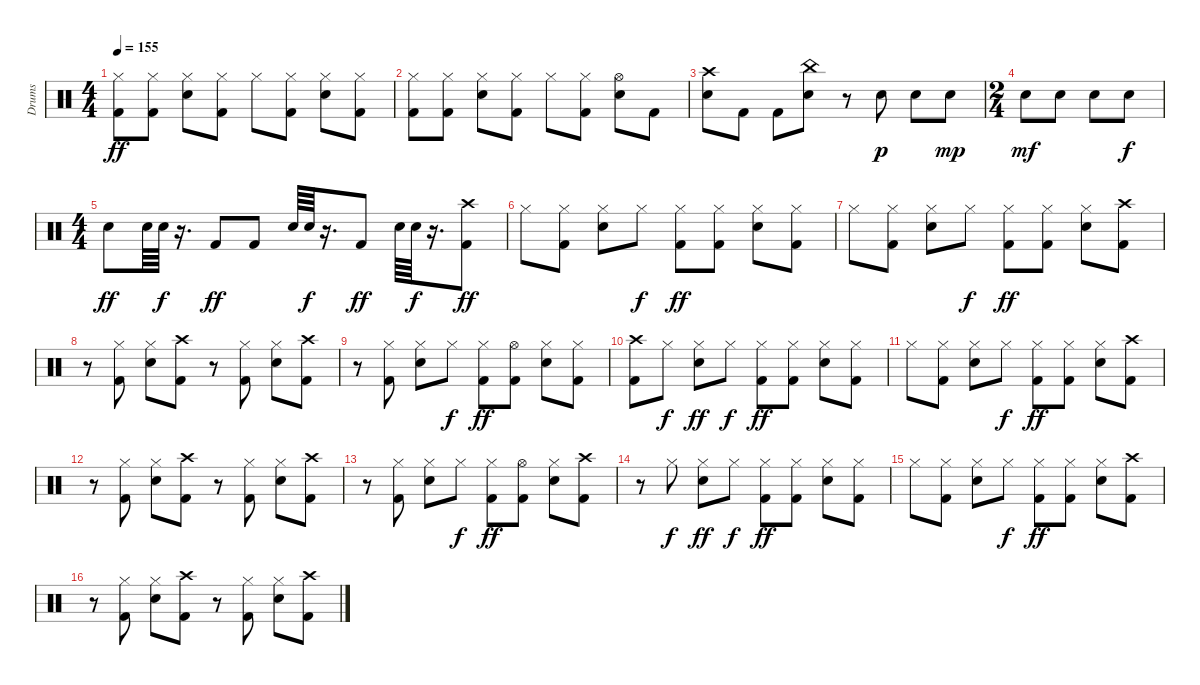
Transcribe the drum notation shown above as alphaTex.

\track ("Drums" "Drums") {instrument percussion}
\staff {score}
\articulation defaults
\ts (4 4)
\tempo 155
\clef neutral
\ks c
("Hi-Hat (closed)" "Kick (hit) 2").8{dy ff} ("Hi-Hat (closed)" "Kick (hit) 2").8 ("Hi-Hat (closed)" "Snare (hit) 2").8 ("Hi-Hat (closed)" "Kick (hit) 2").8 "Hi-Hat (closed)".8 ("Hi-Hat (closed)" "Kick (hit) 2").8 ("Hi-Hat (closed)" "Snare (hit) 2").8 ("Hi-Hat (closed)" "Kick (hit) 2").8 |
("Hi-Hat (closed)" "Kick (hit) 2").8 ("Hi-Hat (closed)" "Kick (hit) 2").8 ("Hi-Hat (closed)" "Snare (hit) 2").8 ("Hi-Hat (closed)" "Kick (hit) 2").8 "Hi-Hat (closed)".8 ("Hi-Hat (closed)" "Kick (hit) 2").8 ("Hi-Hat (open)" "Snare (hit) 2").8 "Kick (hit) 2".8 |
("Crash high (hit)" "Snare (hit) 2").8 "Kick (hit) 2".8 "Kick (hit) 2".8 ("China (hit)" "Snare (hit) 2").8 r.8 "Snare (hit) 2".8{dy p} "Snare (hit) 2".8 "Snare (hit) 2".8{dy mp} |
\ts (2 4)
"Snare (hit) 2".8{dy mf} "Snare (hit) 2".8 "Snare (hit) 2".8 "Snare (hit) 2".8{dy f} |
\ts (4 4)
"Snare (hit) 2".8{dy ff} "Snare (hit) 2".64 "Snare (hit) 2".64{dy f} r.16{d} "Kick (hit) 2".8{dy ff} "Kick (hit) 2".8 "Snare (hit) 2".64 "Snare (hit) 2".64{dy f} r.16{d} "Kick (hit) 2".8{dy ff} "Snare (hit) 2".64 "Snare (hit) 2".64{dy f} r.16{d} ("Crash high (hit)" "Kick (hit) 2").8{dy ff} |
"Hi-Hat (closed)".8 ("Hi-Hat (closed)" "Kick (hit) 2").8 ("Hi-Hat (closed)" "Snare (hit) 2").8 "Hi-Hat (closed)".8{dy f} ("Hi-Hat (closed)" "Kick (hit) 2").8{dy ff} ("Hi-Hat (closed)" "Kick (hit) 2").8 ("Hi-Hat (closed)" "Snare (hit) 2").8 ("Hi-Hat (closed)" "Kick (hit) 2").8 |
"Hi-Hat (closed)".8 ("Hi-Hat (closed)" "Kick (hit) 2").8 ("Hi-Hat (closed)" "Snare (hit) 2").8 "Hi-Hat (closed)".8{dy f} ("Hi-Hat (closed)" "Kick (hit) 2").8{dy ff} ("Hi-Hat (closed)" "Kick (hit) 2").8 ("Hi-Hat (closed)" "Snare (hit) 2").8 ("Crash high (hit)" "Kick (hit) 2").8 |
r.8 ("Hi-Hat (closed)" "Kick (hit) 2").8 ("Hi-Hat (closed)" "Snare (hit) 2").8 ("Crash high (hit)" "Kick (hit) 2").8 r.8 ("Hi-Hat (closed)" "Kick (hit) 2").8 ("Hi-Hat (closed)" "Snare (hit) 2").8 ("Crash high (hit)" "Kick (hit) 2").8 |
r.8 ("Hi-Hat (closed)" "Kick (hit) 2").8 ("Hi-Hat (closed)" "Snare (hit) 2").8 "Hi-Hat (closed)".8{dy f} ("Hi-Hat (closed)" "Kick (hit) 2").8{dy ff} ("Hi-Hat (open)" "Kick (hit) 2").8 ("Hi-Hat (closed)" "Snare (hit) 2").8 ("Hi-Hat (closed)" "Kick (hit) 2").8 |
("Crash high (hit)" "Kick (hit) 2").8 "Hi-Hat (closed)".8{dy f} ("Hi-Hat (closed)" "Snare (hit) 2").8{dy ff} "Hi-Hat (closed)".8{dy f} ("Hi-Hat (closed)" "Kick (hit) 2").8{dy ff} ("Hi-Hat (closed)" "Kick (hit) 2").8 ("Hi-Hat (closed)" "Snare (hit) 2").8 ("Hi-Hat (closed)" "Kick (hit) 2").8 |
"Hi-Hat (closed)".8 ("Hi-Hat (closed)" "Kick (hit) 2").8 ("Hi-Hat (closed)" "Snare (hit) 2").8 "Hi-Hat (closed)".8{dy f} ("Hi-Hat (closed)" "Kick (hit) 2").8{dy ff} ("Hi-Hat (closed)" "Kick (hit) 2").8 ("Hi-Hat (closed)" "Snare (hit) 2").8 ("Crash high (hit)" "Kick (hit) 2").8 |
r.8 ("Hi-Hat (closed)" "Kick (hit) 2").8 ("Hi-Hat (closed)" "Snare (hit) 2").8 ("Crash high (hit)" "Kick (hit) 2").8 r.8 ("Hi-Hat (closed)" "Kick (hit) 2").8 ("Hi-Hat (closed)" "Snare (hit) 2").8 ("Crash high (hit)" "Kick (hit) 2").8 |
r.8 ("Hi-Hat (closed)" "Kick (hit) 2").8 ("Hi-Hat (closed)" "Snare (hit) 2").8 "Hi-Hat (closed)".8{dy f} ("Hi-Hat (closed)" "Kick (hit) 2").8{dy ff} ("Hi-Hat (open)" "Kick (hit) 2").8 ("Hi-Hat (closed)" "Snare (hit) 2").8 ("Crash high (hit)" "Kick (hit) 2").8 |
r.8 "Hi-Hat (closed)".8{dy f} ("Hi-Hat (closed)" "Snare (hit) 2").8{dy ff} "Hi-Hat (closed)".8{dy f} ("Hi-Hat (closed)" "Kick (hit) 2").8{dy ff} ("Hi-Hat (closed)" "Kick (hit) 2").8 ("Hi-Hat (closed)" "Snare (hit) 2").8 ("Hi-Hat (closed)" "Kick (hit) 2").8 |
"Hi-Hat (closed)".8 ("Hi-Hat (closed)" "Kick (hit) 2").8 ("Hi-Hat (closed)" "Snare (hit) 2").8 "Hi-Hat (closed)".8{dy f} ("Hi-Hat (closed)" "Kick (hit) 2").8{dy ff} ("Hi-Hat (closed)" "Kick (hit) 2").8 ("Hi-Hat (closed)" "Snare (hit) 2").8 ("Crash high (hit)" "Kick (hit) 2").8 |
r.8 ("Hi-Hat (closed)" "Kick (hit) 2").8 ("Hi-Hat (closed)" "Snare (hit) 2").8 ("Crash high (hit)" "Kick (hit) 2").8 r.8 ("Hi-Hat (closed)" "Kick (hit) 2").8 ("Hi-Hat (closed)" "Snare (hit) 2").8 ("Crash high (hit)" "Kick (hit) 2").8
